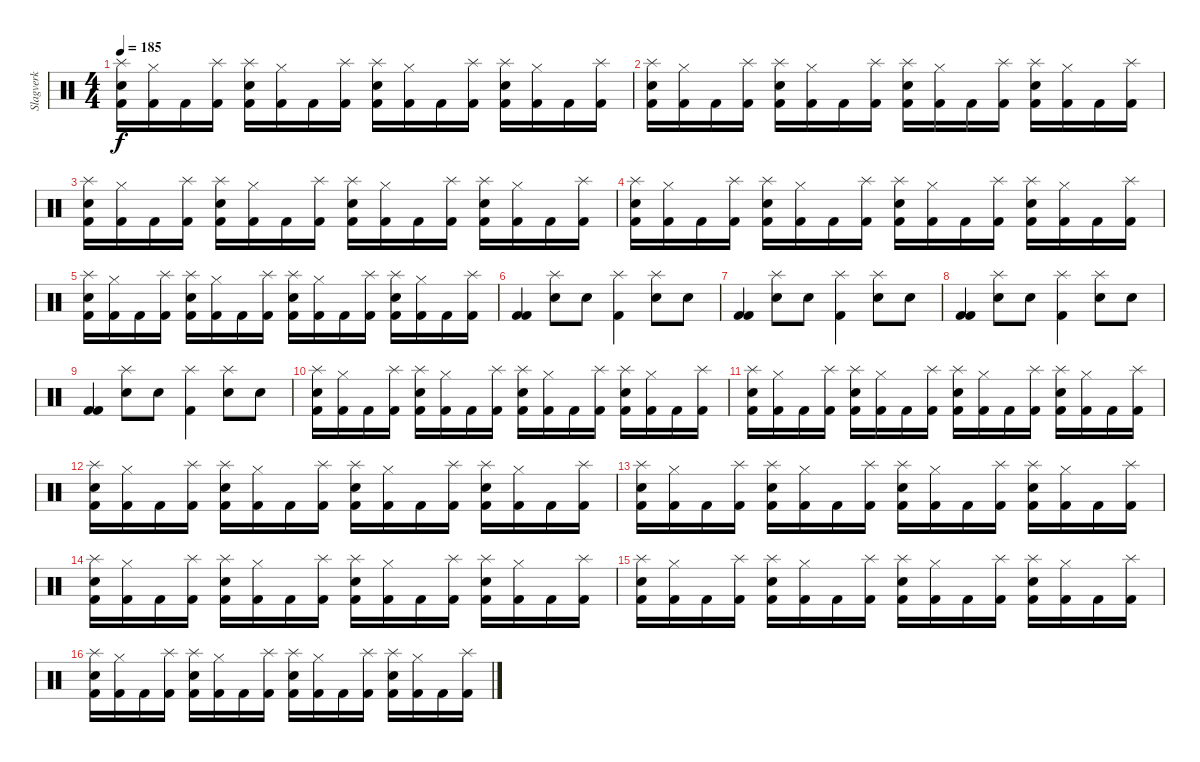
\track ("Slagverk" "Slagverk") {instrument percussion}
\staff {score}
\articulation defaults
\ts (4 4)
\tempo 185
\clef neutral
\ks c
("Kick (hit) 2" "Electric Snare (hit)" "Splash (hit)").16{dy f} ("Kick (hit) 2" "Hi-Hat (closed)").16 "Kick (hit) 2".16 ("Kick (hit) 2" "Splash (hit)").16 ("Kick (hit) 2" "Electric Snare (hit)" "Splash (hit)").16 ("Kick (hit) 2" "Hi-Hat (closed)").16 "Kick (hit) 2".16 ("Kick (hit) 2" "Splash (hit)").16 ("Kick (hit) 2" "Electric Snare (hit)" "Splash (hit)").16 ("Kick (hit) 2" "Hi-Hat (closed)").16 "Kick (hit) 2".16 ("Kick (hit) 2" "Splash (hit)").16 ("Kick (hit) 2" "Electric Snare (hit)" "Splash (hit)").16 ("Kick (hit) 2" "Hi-Hat (closed)").16 "Kick (hit) 2".16 ("Kick (hit) 2" "Splash (hit)").16 |
("Kick (hit) 2" "Electric Snare (hit)" "Splash (hit)").16 ("Kick (hit) 2" "Hi-Hat (closed)").16 "Kick (hit) 2".16 ("Kick (hit) 2" "Splash (hit)").16 ("Kick (hit) 2" "Electric Snare (hit)" "Splash (hit)").16 ("Kick (hit) 2" "Hi-Hat (closed)").16 "Kick (hit) 2".16 ("Kick (hit) 2" "Splash (hit)").16 ("Kick (hit) 2" "Electric Snare (hit)" "Splash (hit)").16 ("Kick (hit) 2" "Hi-Hat (closed)").16 "Kick (hit) 2".16 ("Kick (hit) 2" "Splash (hit)").16 ("Kick (hit) 2" "Electric Snare (hit)" "Splash (hit)").16 ("Kick (hit) 2" "Hi-Hat (closed)").16 "Kick (hit) 2".16 ("Kick (hit) 2" "Splash (hit)").16 |
("Kick (hit) 2" "Electric Snare (hit)" "Splash (hit)").16 ("Kick (hit) 2" "Hi-Hat (closed)").16 "Kick (hit) 2".16 ("Kick (hit) 2" "Splash (hit)").16 ("Kick (hit) 2" "Electric Snare (hit)" "Splash (hit)").16 ("Kick (hit) 2" "Hi-Hat (closed)").16 "Kick (hit) 2".16 ("Kick (hit) 2" "Splash (hit)").16 ("Kick (hit) 2" "Electric Snare (hit)" "Splash (hit)").16 ("Kick (hit) 2" "Hi-Hat (closed)").16 "Kick (hit) 2".16 ("Kick (hit) 2" "Splash (hit)").16 ("Kick (hit) 2" "Electric Snare (hit)" "Splash (hit)").16 ("Kick (hit) 2" "Hi-Hat (closed)").16 "Kick (hit) 2".16 ("Kick (hit) 2" "Splash (hit)").16 |
("Kick (hit) 2" "Electric Snare (hit)" "Splash (hit)").16 ("Kick (hit) 2" "Hi-Hat (closed)").16 "Kick (hit) 2".16 ("Kick (hit) 2" "Splash (hit)").16 ("Kick (hit) 2" "Electric Snare (hit)" "Splash (hit)").16 ("Kick (hit) 2" "Hi-Hat (closed)").16 "Kick (hit) 2".16 ("Kick (hit) 2" "Splash (hit)").16 ("Kick (hit) 2" "Electric Snare (hit)" "Splash (hit)").16 ("Kick (hit) 2" "Hi-Hat (closed)").16 "Kick (hit) 2".16 ("Kick (hit) 2" "Splash (hit)").16 ("Kick (hit) 2" "Electric Snare (hit)" "Splash (hit)").16 ("Kick (hit) 2" "Hi-Hat (closed)").16 "Kick (hit) 2".16 ("Kick (hit) 2" "Splash (hit)").16 |
("Kick (hit) 2" "Electric Snare (hit)" "Splash (hit)").16 ("Kick (hit) 2" "Hi-Hat (closed)").16 "Kick (hit) 2".16 ("Kick (hit) 2" "Splash (hit)").16 ("Kick (hit) 2" "Electric Snare (hit)" "Splash (hit)").16 ("Kick (hit) 2" "Hi-Hat (closed)").16 "Kick (hit) 2".16 ("Kick (hit) 2" "Splash (hit)").16 ("Kick (hit) 2" "Electric Snare (hit)" "Splash (hit)").16 ("Kick (hit) 2" "Hi-Hat (closed)").16 "Kick (hit) 2".16 ("Kick (hit) 2" "Splash (hit)").16 ("Kick (hit) 2" "Electric Snare (hit)" "Splash (hit)").16 ("Kick (hit) 2" "Hi-Hat (closed)").16 "Kick (hit) 2".16 ("Kick (hit) 2" "Splash (hit)").16 |
("Kick (hit) 2" "Kick (hit) 2").4 ("Splash (hit)" "Electric Snare (hit)").8 "Electric Snare (hit)".8 ("Splash (hit)" "Kick (hit) 2").4 ("Splash (hit)" "Electric Snare (hit)").8 "Electric Snare (hit)".8 |
("Kick (hit) 2" "Kick (hit) 2").4 ("Splash (hit)" "Electric Snare (hit)").8 "Electric Snare (hit)".8 ("Splash (hit)" "Kick (hit) 2").4 ("Splash (hit)" "Electric Snare (hit)").8 "Electric Snare (hit)".8 |
("Kick (hit) 2" "Kick (hit) 2").4 ("Splash (hit)" "Electric Snare (hit)").8 "Electric Snare (hit)".8 ("Splash (hit)" "Kick (hit) 2").4 ("Splash (hit)" "Electric Snare (hit)").8 "Electric Snare (hit)".8 |
("Kick (hit) 2" "Kick (hit) 2").4 ("Splash (hit)" "Electric Snare (hit)").8 "Electric Snare (hit)".8 ("Splash (hit)" "Kick (hit) 2").4 ("Splash (hit)" "Electric Snare (hit)").8 "Electric Snare (hit)".8 |
("Kick (hit) 2" "Electric Snare (hit)" "Splash (hit)").16 ("Kick (hit) 2" "Hi-Hat (closed)").16 "Kick (hit) 2".16 ("Kick (hit) 2" "Splash (hit)").16 ("Kick (hit) 2" "Electric Snare (hit)" "Splash (hit)").16 ("Kick (hit) 2" "Hi-Hat (closed)").16 "Kick (hit) 2".16 ("Kick (hit) 2" "Splash (hit)").16 ("Kick (hit) 2" "Electric Snare (hit)" "Splash (hit)").16 ("Kick (hit) 2" "Hi-Hat (closed)").16 "Kick (hit) 2".16 ("Kick (hit) 2" "Splash (hit)").16 ("Kick (hit) 2" "Electric Snare (hit)" "Splash (hit)").16 ("Kick (hit) 2" "Hi-Hat (closed)").16 "Kick (hit) 2".16 ("Kick (hit) 2" "Splash (hit)").16 |
("Kick (hit) 2" "Electric Snare (hit)" "Splash (hit)").16 ("Kick (hit) 2" "Hi-Hat (closed)").16 "Kick (hit) 2".16 ("Kick (hit) 2" "Splash (hit)").16 ("Kick (hit) 2" "Electric Snare (hit)" "Splash (hit)").16 ("Kick (hit) 2" "Hi-Hat (closed)").16 "Kick (hit) 2".16 ("Kick (hit) 2" "Splash (hit)").16 ("Kick (hit) 2" "Electric Snare (hit)" "Splash (hit)").16 ("Kick (hit) 2" "Hi-Hat (closed)").16 "Kick (hit) 2".16 ("Kick (hit) 2" "Splash (hit)").16 ("Kick (hit) 2" "Electric Snare (hit)" "Splash (hit)").16 ("Kick (hit) 2" "Hi-Hat (closed)").16 "Kick (hit) 2".16 ("Kick (hit) 2" "Splash (hit)").16 |
("Kick (hit) 2" "Electric Snare (hit)" "Splash (hit)").16 ("Kick (hit) 2" "Hi-Hat (closed)").16 "Kick (hit) 2".16 ("Kick (hit) 2" "Splash (hit)").16 ("Kick (hit) 2" "Electric Snare (hit)" "Splash (hit)").16 ("Kick (hit) 2" "Hi-Hat (closed)").16 "Kick (hit) 2".16 ("Kick (hit) 2" "Splash (hit)").16 ("Kick (hit) 2" "Electric Snare (hit)" "Splash (hit)").16 ("Kick (hit) 2" "Hi-Hat (closed)").16 "Kick (hit) 2".16 ("Kick (hit) 2" "Splash (hit)").16 ("Kick (hit) 2" "Electric Snare (hit)" "Splash (hit)").16 ("Kick (hit) 2" "Hi-Hat (closed)").16 "Kick (hit) 2".16 ("Kick (hit) 2" "Splash (hit)").16 |
("Kick (hit) 2" "Electric Snare (hit)" "Splash (hit)").16 ("Kick (hit) 2" "Hi-Hat (closed)").16 "Kick (hit) 2".16 ("Kick (hit) 2" "Splash (hit)").16 ("Kick (hit) 2" "Electric Snare (hit)" "Splash (hit)").16 ("Kick (hit) 2" "Hi-Hat (closed)").16 "Kick (hit) 2".16 ("Kick (hit) 2" "Splash (hit)").16 ("Kick (hit) 2" "Electric Snare (hit)" "Splash (hit)").16 ("Kick (hit) 2" "Hi-Hat (closed)").16 "Kick (hit) 2".16 ("Kick (hit) 2" "Splash (hit)").16 ("Kick (hit) 2" "Electric Snare (hit)" "Splash (hit)").16 ("Kick (hit) 2" "Hi-Hat (closed)").16 "Kick (hit) 2".16 ("Kick (hit) 2" "Splash (hit)").16 |
("Kick (hit) 2" "Electric Snare (hit)" "Splash (hit)").16 ("Kick (hit) 2" "Hi-Hat (closed)").16 "Kick (hit) 2".16 ("Kick (hit) 2" "Splash (hit)").16 ("Kick (hit) 2" "Electric Snare (hit)" "Splash (hit)").16 ("Kick (hit) 2" "Hi-Hat (closed)").16 "Kick (hit) 2".16 ("Kick (hit) 2" "Splash (hit)").16 ("Kick (hit) 2" "Electric Snare (hit)" "Splash (hit)").16 ("Kick (hit) 2" "Hi-Hat (closed)").16 "Kick (hit) 2".16 ("Kick (hit) 2" "Splash (hit)").16 ("Kick (hit) 2" "Electric Snare (hit)" "Splash (hit)").16 ("Kick (hit) 2" "Hi-Hat (closed)").16 "Kick (hit) 2".16 ("Kick (hit) 2" "Splash (hit)").16 |
("Kick (hit) 2" "Electric Snare (hit)" "Splash (hit)").16 ("Kick (hit) 2" "Hi-Hat (closed)").16 "Kick (hit) 2".16 ("Kick (hit) 2" "Splash (hit)").16 ("Kick (hit) 2" "Electric Snare (hit)" "Splash (hit)").16 ("Kick (hit) 2" "Hi-Hat (closed)").16 "Kick (hit) 2".16 ("Kick (hit) 2" "Splash (hit)").16 ("Kick (hit) 2" "Electric Snare (hit)" "Splash (hit)").16 ("Kick (hit) 2" "Hi-Hat (closed)").16 "Kick (hit) 2".16 ("Kick (hit) 2" "Splash (hit)").16 ("Kick (hit) 2" "Electric Snare (hit)" "Splash (hit)").16 ("Kick (hit) 2" "Hi-Hat (closed)").16 "Kick (hit) 2".16 ("Kick (hit) 2" "Splash (hit)").16 |
("Kick (hit) 2" "Electric Snare (hit)" "Splash (hit)").16 ("Kick (hit) 2" "Hi-Hat (closed)").16 "Kick (hit) 2".16 ("Kick (hit) 2" "Splash (hit)").16 ("Kick (hit) 2" "Electric Snare (hit)" "Splash (hit)").16 ("Kick (hit) 2" "Hi-Hat (closed)").16 "Kick (hit) 2".16 ("Kick (hit) 2" "Splash (hit)").16 ("Kick (hit) 2" "Electric Snare (hit)" "Splash (hit)").16 ("Kick (hit) 2" "Hi-Hat (closed)").16 "Kick (hit) 2".16 ("Kick (hit) 2" "Splash (hit)").16 ("Kick (hit) 2" "Electric Snare (hit)" "Splash (hit)").16 ("Kick (hit) 2" "Hi-Hat (closed)").16 "Kick (hit) 2".16 ("Kick (hit) 2" "Splash (hit)").16
